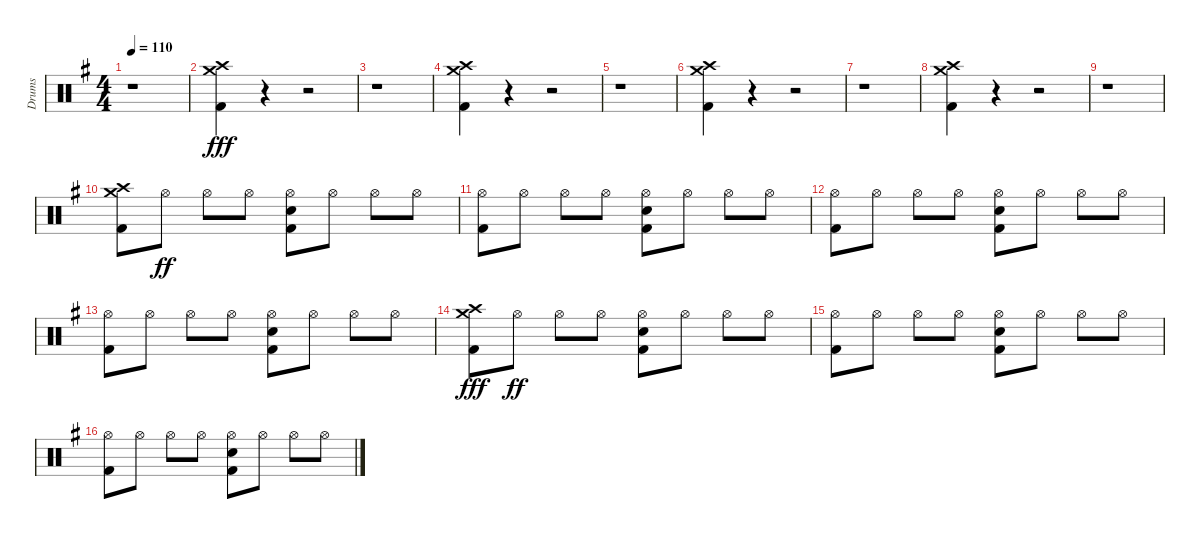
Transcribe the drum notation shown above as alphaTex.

\track ("Drums" "Drums") {instrument percussion}
\staff {score}
\articulation defaults
\ts (4 4)
\tempo 110
\clef neutral
\ks eminor
r.1{dy fff} |
("Crash high (hit)" "Kick (hit) 2" "Crash medium (hit)").4 r.4 r.2 |
r.1 |
("Crash high (hit)" "Kick (hit) 2" "Crash medium (hit)").4 r.4 r.2 |
r.1 |
("Crash high (hit)" "Kick (hit) 2" "Crash medium (hit)").4 r.4 r.2 |
r.1 |
("Crash high (hit)" "Kick (hit) 2" "Crash medium (hit)").4 r.4 r.2 |
r.1 |
("Kick (hit) 2" "Crash high (hit)" "Crash medium (hit)").8 "Hi-Hat (open)".8{dy ff} "Hi-Hat (open)".8 "Hi-Hat (open)".8 ("Kick (hit) 2" "Electric Snare (hit)" "Hi-Hat (open)").8 "Hi-Hat (open)".8 "Hi-Hat (open)".8 "Hi-Hat (open)".8 |
("Kick (hit) 2" "Hi-Hat (open)").8 "Hi-Hat (open)".8 "Hi-Hat (open)".8 "Hi-Hat (open)".8 ("Kick (hit) 2" "Electric Snare (hit)" "Hi-Hat (open)").8 "Hi-Hat (open)".8 "Hi-Hat (open)".8 "Hi-Hat (open)".8 |
("Kick (hit) 2" "Hi-Hat (open)").8 "Hi-Hat (open)".8 "Hi-Hat (open)".8 "Hi-Hat (open)".8 ("Kick (hit) 2" "Electric Snare (hit)" "Hi-Hat (open)").8 "Hi-Hat (open)".8 "Hi-Hat (open)".8 "Hi-Hat (open)".8 |
("Kick (hit) 2" "Hi-Hat (open)").8 "Hi-Hat (open)".8 "Hi-Hat (open)".8 "Hi-Hat (open)".8 ("Kick (hit) 2" "Electric Snare (hit)" "Hi-Hat (open)").8 "Hi-Hat (open)".8 "Hi-Hat (open)".8 "Hi-Hat (open)".8 |
("Kick (hit) 2" "Crash high (hit)" "Crash medium (hit)").8{dy fff} "Hi-Hat (open)".8{dy ff} "Hi-Hat (open)".8 "Hi-Hat (open)".8 ("Kick (hit) 2" "Electric Snare (hit)" "Hi-Hat (open)").8 "Hi-Hat (open)".8 "Hi-Hat (open)".8 "Hi-Hat (open)".8 |
("Kick (hit) 2" "Hi-Hat (open)").8 "Hi-Hat (open)".8 "Hi-Hat (open)".8 "Hi-Hat (open)".8 ("Kick (hit) 2" "Electric Snare (hit)" "Hi-Hat (open)").8 "Hi-Hat (open)".8 "Hi-Hat (open)".8 "Hi-Hat (open)".8 |
("Kick (hit) 2" "Hi-Hat (open)").8 "Hi-Hat (open)".8 "Hi-Hat (open)".8 "Hi-Hat (open)".8 ("Kick (hit) 2" "Electric Snare (hit)" "Hi-Hat (open)").8 "Hi-Hat (open)".8 "Hi-Hat (open)".8 "Hi-Hat (open)".8
